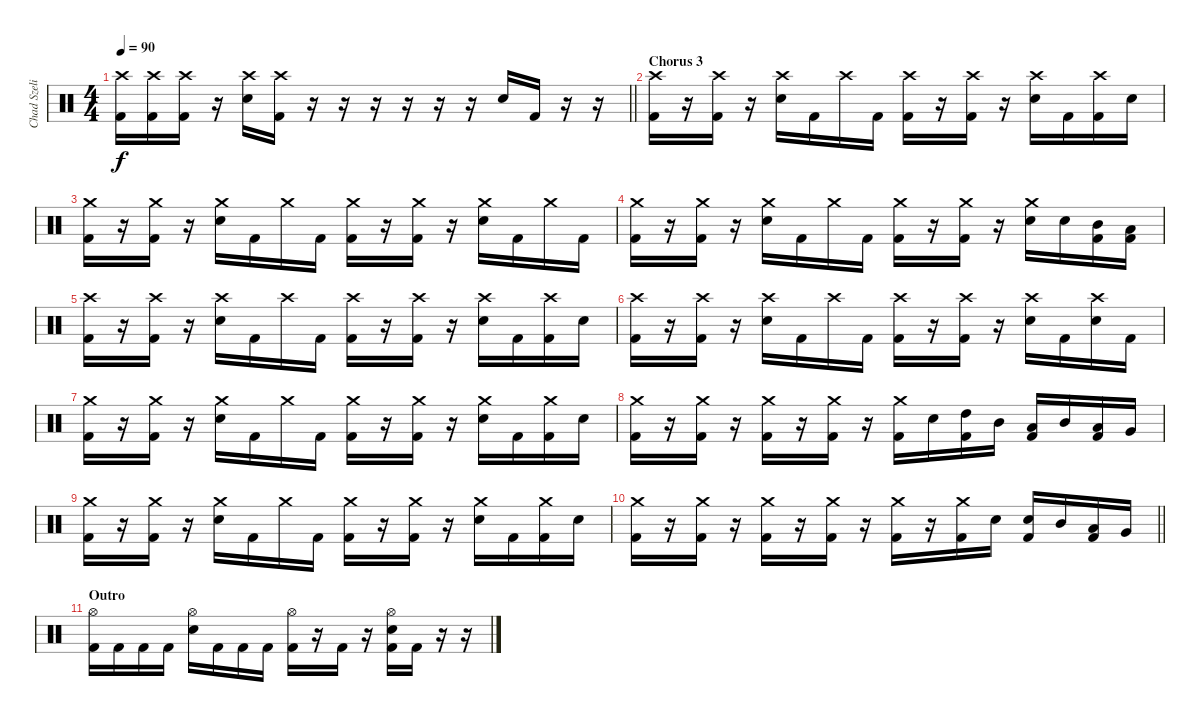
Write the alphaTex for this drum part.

\track ("Chad Szeliga" "Chad Szeli") {instrument percussion}
\staff {score}
\articulation defaults
\ts (4 4)
\tempo 90
\clef neutral
\barLineRight lightlight
\ks c
("Crash high (hit)" "Kick (hit) 2").16{dy f} ("Crash high (hit)" "Kick (hit) 2").16 ("Crash high (hit)" "Kick (hit) 2").16 r.16 ("Crash high (hit)" "Electric Snare (hit)").16 ("Crash high (hit)" "Kick (hit) 2").16 r.16 r.16 r.16 r.16 r.16 r.16 "Electric Snare (hit)".16 "Kick (hit) 2".16 r.16 r.16 |
\section ("" "Chorus 3")
("Crash high (hit)" "Kick (hit) 2").16 r.16 ("Crash high (hit)" "Kick (hit) 2").16 r.16 ("Crash high (hit)" "Electric Snare (hit)").16 "Kick (hit) 2".16 "Crash high (hit)".16 "Kick (hit) 2".16 ("Crash high (hit)" "Kick (hit) 2").16 r.16 ("Crash high (hit)" "Kick (hit) 2").16 r.16 ("Crash high (hit)" "Electric Snare (hit)").16 "Kick (hit) 2".16 ("Crash high (hit)" "Kick (hit) 2").16 "Electric Snare (hit)".16 |
("Crash medium (hit)" "Kick (hit) 2").16 r.16 ("Crash medium (hit)" "Kick (hit) 2").16 r.16 ("Crash medium (hit)" "Electric Snare (hit)").16 "Kick (hit) 2".16 "Crash medium (hit)".16 "Kick (hit) 2".16 ("Crash medium (hit)" "Kick (hit) 2").16 r.16 ("Crash medium (hit)" "Kick (hit) 2").16 r.16 ("Crash medium (hit)" "Electric Snare (hit)").16 "Kick (hit) 2".16 "Crash medium (hit)".16 "Kick (hit) 2".16 |
("Crash medium (hit)" "Kick (hit) 2").16 r.16 ("Crash medium (hit)" "Kick (hit) 2").16 r.16 ("Crash medium (hit)" "Electric Snare (hit)").16 "Kick (hit) 2".16 "Crash medium (hit)".16 "Kick (hit) 2".16 ("Crash medium (hit)" "Kick (hit) 2").16 r.16 ("Crash medium (hit)" "Kick (hit) 2").16 r.16 ("Crash medium (hit)" "Electric Snare (hit)").16 "Electric Snare (hit)".16 ("Mid Tom (hit)" "Kick (hit) 2").16 ("Low Tom (hit)" "Kick (hit) 2").16 |
("Crash high (hit)" "Kick (hit) 2").16 r.16 ("Crash high (hit)" "Kick (hit) 2").16 r.16 ("Crash high (hit)" "Electric Snare (hit)").16 "Kick (hit) 2".16 "Crash high (hit)".16 "Kick (hit) 2".16 ("Crash high (hit)" "Kick (hit) 2").16 r.16 ("Crash high (hit)" "Kick (hit) 2").16 r.16 ("Crash high (hit)" "Electric Snare (hit)").16 "Kick (hit) 2".16 ("Crash high (hit)" "Kick (hit) 2").16 "Electric Snare (hit)".16 |
("Crash high (hit)" "Kick (hit) 2").16 r.16 ("Crash high (hit)" "Kick (hit) 2").16 r.16 ("Crash high (hit)" "Electric Snare (hit)").16 "Kick (hit) 2".16 "Crash high (hit)".16 "Kick (hit) 2".16 ("Crash high (hit)" "Kick (hit) 2").16 r.16 ("Crash high (hit)" "Kick (hit) 2").16 r.16 ("Crash high (hit)" "Electric Snare (hit)").16 "Kick (hit) 2".16 ("Crash high (hit)" "Electric Snare (hit)").16 "Kick (hit) 2".16 |
("Crash medium (hit)" "Kick (hit) 2").16 r.16 ("Crash medium (hit)" "Kick (hit) 2").16 r.16 ("Crash medium (hit)" "Electric Snare (hit)").16 "Kick (hit) 2".16 "Crash medium (hit)".16 "Kick (hit) 2".16 ("Crash medium (hit)" "Kick (hit) 2").16 r.16 ("Crash medium (hit)" "Kick (hit) 2").16 r.16 ("Crash medium (hit)" "Electric Snare (hit)").16 "Kick (hit) 2".16 ("Crash medium (hit)" "Kick (hit) 2").16 "Electric Snare (hit)".16 |
("Crash medium (hit)" "Kick (hit) 2").16 r.16 ("Crash medium (hit)" "Kick (hit) 2").16 r.16 ("Crash medium (hit)" "Kick (hit) 2").16 r.16 ("Crash medium (hit)" "Kick (hit) 2").16 r.16 ("Crash medium (hit)" "Kick (hit) 2").16 "Electric Snare (hit)".16 ("High Tom (hit)" "Kick (hit) 2").16 "Mid Tom (hit)".16 ("Low Tom (hit)" "Kick (hit) 2").16 "Mid Tom (hit)".16 ("Low Tom (hit)" "Kick (hit) 2").16 "Very Low Tom (hit)".16 |
("Crash medium (hit)" "Kick (hit) 2").16 r.16 ("Crash medium (hit)" "Kick (hit) 2").16 r.16 ("Crash medium (hit)" "Electric Snare (hit)").16 "Kick (hit) 2".16 "Crash medium (hit)".16 "Kick (hit) 2".16 ("Crash medium (hit)" "Kick (hit) 2").16 r.16 ("Crash medium (hit)" "Kick (hit) 2").16 r.16 ("Crash medium (hit)" "Electric Snare (hit)").16 "Kick (hit) 2".16 ("Crash medium (hit)" "Kick (hit) 2").16 "Electric Snare (hit)".16 |
\barLineRight lightlight
("Crash medium (hit)" "Kick (hit) 2").16 r.16 ("Crash medium (hit)" "Kick (hit) 2").16 r.16 ("Crash medium (hit)" "Kick (hit) 2").16 r.16 ("Crash medium (hit)" "Kick (hit) 2").16 r.16 ("Crash medium (hit)" "Kick (hit) 2").16 r.16 ("Crash medium (hit)" "Kick (hit) 2").16 "Electric Snare (hit)".16 ("Electric Snare (hit)" "Kick (hit) 2").16 "Mid Tom (hit)".16 ("Low Tom (hit)" "Kick (hit) 2").16 "Very Low Tom (hit)".16 |
\section ("" "Outro")
("Hi-Hat (open)" "Kick (hit) 2").16 "Kick (hit) 2".16 "Kick (hit) 2".16 "Kick (hit) 2".16 ("Hi-Hat (open)" "Electric Snare (hit)").16 "Kick (hit) 2".16 "Kick (hit) 2".16 "Kick (hit) 2".16 ("Hi-Hat (open)" "Kick (hit) 2").16 r.16 "Kick (hit) 2".16 r.16 ("Hi-Hat (open)" "Electric Snare (hit)" "Kick (hit) 2").16 "Kick (hit) 2".16 r.16 r.16
